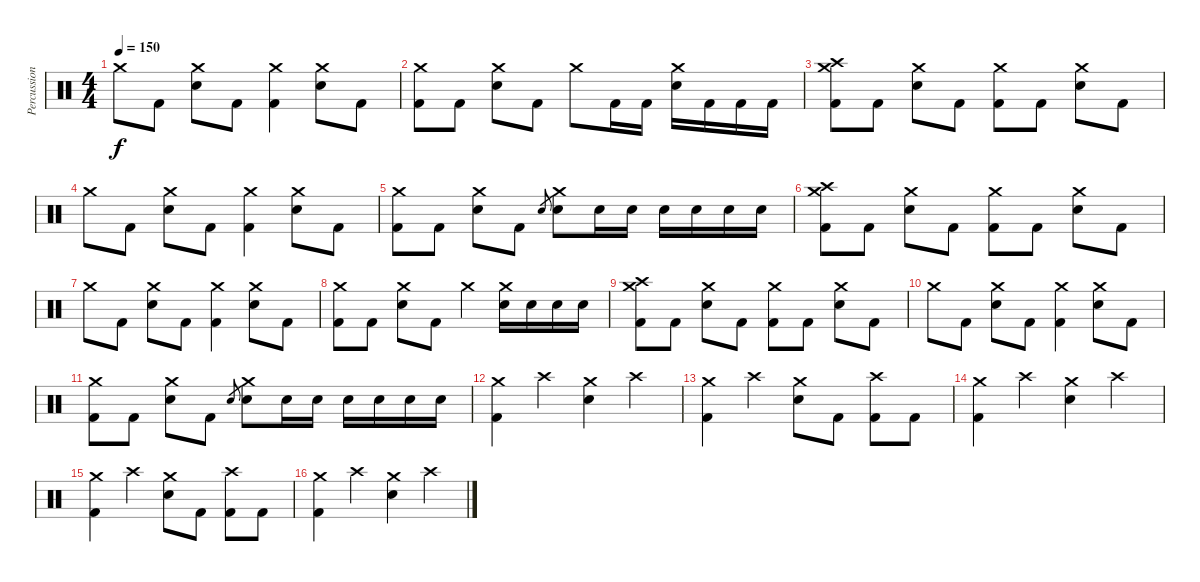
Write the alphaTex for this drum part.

\track ("Percussion" "Percussion") {instrument percussion}
\staff {score}
\articulation defaults
\ts (4 4)
\tempo 150
\clef neutral
\ks c "Crash medium (hit)".8{dy f} "Kick (hit) 2".8
("Crash medium (hit)" "Electric Snare (hit)").8 "Kick (hit) 2".8 ("Crash medium (hit)" "Kick (hit) 2").4 ("Crash medium (hit)" "Electric Snare (hit)").8 "Kick (hit) 2".8 |
("Crash medium (hit)" "Kick (hit) 2").8 "Kick (hit) 2".8 ("Crash medium (hit)" "Electric Snare (hit)").8 "Kick (hit) 2".8 "Crash medium (hit)".8 "Kick (hit) 2".16 "Kick (hit) 2".16 ("Crash medium (hit)" "Electric Snare (hit)").16 "Kick (hit) 2".16 "Kick (hit) 2".16 "Kick (hit) 2".16 |
("Crash high (hit)" "Crash medium (hit)" "Kick (hit) 2").8 "Kick (hit) 2".8 ("Crash medium (hit)" "Electric Snare (hit)").8 "Kick (hit) 2".8 ("Crash medium (hit)" "Kick (hit) 2").8 "Kick (hit) 2".8 ("Crash medium (hit)" "Electric Snare (hit)").8 "Kick (hit) 2".8 |
"Crash medium (hit)".8 "Kick (hit) 2".8 ("Crash medium (hit)" "Electric Snare (hit)").8 "Kick (hit) 2".8 ("Crash medium (hit)" "Kick (hit) 2").4 ("Crash medium (hit)" "Electric Snare (hit)").8 "Kick (hit) 2".8 |
("Crash medium (hit)" "Kick (hit) 2").8 "Kick (hit) 2".8 ("Crash medium (hit)" "Electric Snare (hit)").8 "Kick (hit) 2".8 "Electric Snare (hit)".8{gr} ("Crash medium (hit)" "Electric Snare (hit)").8 "Electric Snare (hit)".16 "Electric Snare (hit)".16 "Electric Snare (hit)".16 "Electric Snare (hit)".16 "Electric Snare (hit)".16 "Electric Snare (hit)".16 |
("Crash high (hit)" "Crash medium (hit)" "Kick (hit) 2").8 "Kick (hit) 2".8 ("Crash medium (hit)" "Electric Snare (hit)").8 "Kick (hit) 2".8 ("Crash medium (hit)" "Kick (hit) 2").8 "Kick (hit) 2".8 ("Crash medium (hit)" "Electric Snare (hit)").8 "Kick (hit) 2".8 |
"Crash medium (hit)".8 "Kick (hit) 2".8 ("Crash medium (hit)" "Electric Snare (hit)").8 "Kick (hit) 2".8 ("Crash medium (hit)" "Kick (hit) 2").4 ("Crash medium (hit)" "Electric Snare (hit)").8 "Kick (hit) 2".8 |
("Crash medium (hit)" "Kick (hit) 2").8 "Kick (hit) 2".8 ("Crash medium (hit)" "Electric Snare (hit)").8 "Kick (hit) 2".8 "Crash medium (hit)".4 ("Crash medium (hit)" "Electric Snare (hit)").16 "Electric Snare (hit)".16 "Electric Snare (hit)".16 "Electric Snare (hit)".16 |
("Crash high (hit)" "Crash medium (hit)" "Kick (hit) 2").8 "Kick (hit) 2".8 ("Crash medium (hit)" "Electric Snare (hit)").8 "Kick (hit) 2".8 ("Crash medium (hit)" "Kick (hit) 2").8 "Kick (hit) 2".8 ("Crash medium (hit)" "Electric Snare (hit)").8 "Kick (hit) 2".8 |
"Crash medium (hit)".8 "Kick (hit) 2".8 ("Crash medium (hit)" "Electric Snare (hit)").8 "Kick (hit) 2".8 ("Crash medium (hit)" "Kick (hit) 2").4 ("Crash medium (hit)" "Electric Snare (hit)").8 "Kick (hit) 2".8 |
("Crash medium (hit)" "Kick (hit) 2").8 "Kick (hit) 2".8 ("Crash medium (hit)" "Electric Snare (hit)").8 "Kick (hit) 2".8 "Electric Snare (hit)".8{gr} ("Crash medium (hit)" "Electric Snare (hit)").8 "Electric Snare (hit)".16 "Electric Snare (hit)".16 "Electric Snare (hit)".16 "Electric Snare (hit)".16 "Electric Snare (hit)".16 "Electric Snare (hit)".16 |
("Crash medium (hit)" "Kick (hit) 2").4 "Crash high (hit)".4 ("Crash medium (hit)" "Electric Snare (hit)").4 "Crash high (hit)".4 |
("Crash medium (hit)" "Kick (hit) 2").4 "Crash high (hit)".4 ("Crash medium (hit)" "Electric Snare (hit)").8 "Kick (hit) 2".8 ("Crash high (hit)" "Kick (hit) 2").8 "Kick (hit) 2".8 |
("Crash medium (hit)" "Kick (hit) 2").4 "Crash high (hit)".4 ("Crash medium (hit)" "Electric Snare (hit)").4 "Crash high (hit)".4 |
("Crash medium (hit)" "Kick (hit) 2").4 "Crash high (hit)".4 ("Crash medium (hit)" "Electric Snare (hit)").8 "Kick (hit) 2".8 ("Crash high (hit)" "Kick (hit) 2").8 "Kick (hit) 2".8 |
("Crash medium (hit)" "Kick (hit) 2").4 "Crash high (hit)".4 ("Crash medium (hit)" "Electric Snare (hit)").4 "Crash high (hit)".4
